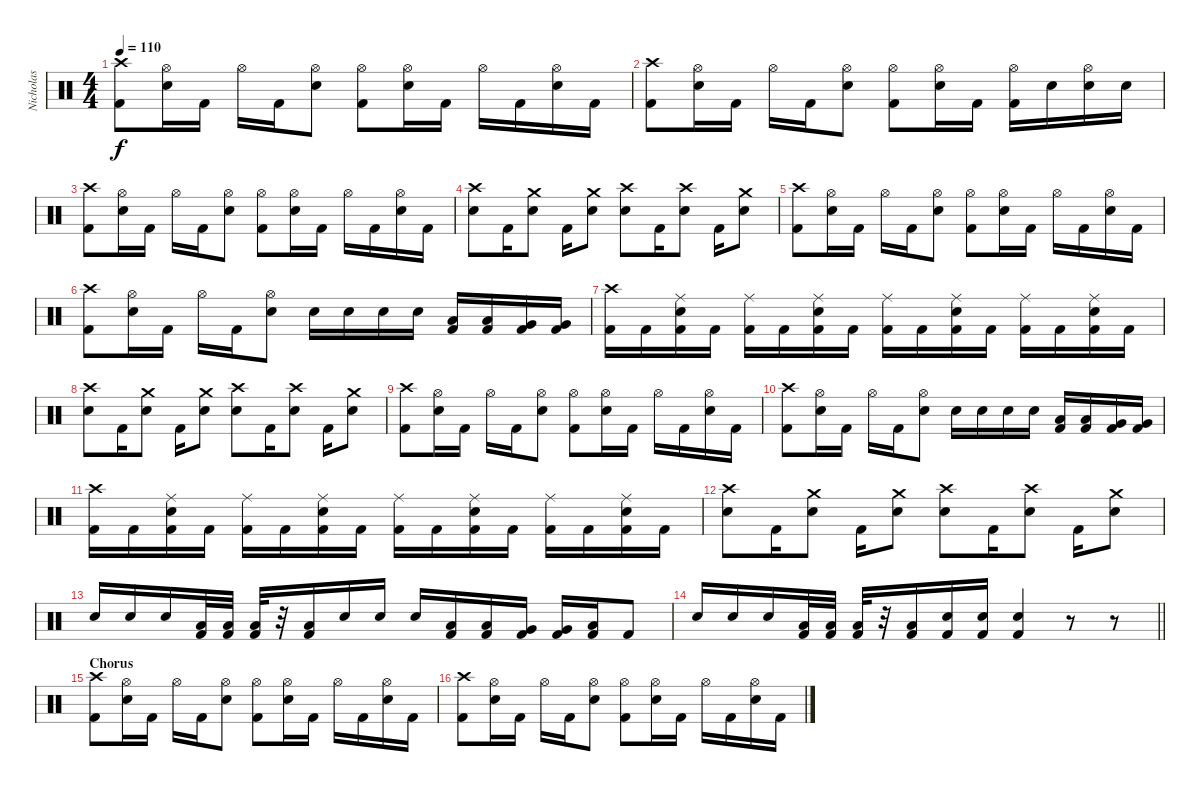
\track ("Nicholas" "Nicholas") {instrument percussion}
\staff {score}
\articulation defaults
\ts (4 4)
\tempo 110
\clef neutral
\ks c
("Crash high (hit)" "Kick (hit) 2").8{dy f} ("Hi-Hat (open)" "Snare (hit) 2").16 "Kick (hit) 2".16 "Hi-Hat (open)".16 "Kick (hit) 2".16 ("Hi-Hat (open)" "Snare (hit) 2").8 ("Hi-Hat (open)" "Kick (hit) 2").8 ("Hi-Hat (open)" "Snare (hit) 2").16 "Kick (hit) 2".16 "Hi-Hat (open)".16 "Kick (hit) 2".16 ("Hi-Hat (open)" "Snare (hit) 2").16 "Kick (hit) 2".16 |
("Crash high (hit)" "Kick (hit) 2").8 ("Hi-Hat (open)" "Snare (hit) 2").16 "Kick (hit) 2".16 "Hi-Hat (open)".16 "Kick (hit) 2".16 ("Hi-Hat (open)" "Snare (hit) 2").8 ("Hi-Hat (open)" "Kick (hit) 2").8 ("Hi-Hat (open)" "Snare (hit) 2").16 "Kick (hit) 2".16 ("Hi-Hat (open)" "Kick (hit) 2").16 "Snare (hit) 2".16 ("Hi-Hat (open)" "Snare (hit) 2").16 "Snare (hit) 2".16 |
("Crash high (hit)" "Kick (hit) 2").8 ("Hi-Hat (open)" "Snare (hit) 2").16 "Kick (hit) 2".16 "Hi-Hat (open)".16 "Kick (hit) 2".16 ("Hi-Hat (open)" "Snare (hit) 2").8 ("Hi-Hat (open)" "Kick (hit) 2").8 ("Hi-Hat (open)" "Snare (hit) 2").16 "Kick (hit) 2".16 "Hi-Hat (open)".16 "Kick (hit) 2".16 ("Hi-Hat (open)" "Snare (hit) 2").16 "Kick (hit) 2".16 |
("Crash high (hit)" "Snare (hit) 2").8 "Kick (hit) 2".16 ("Crash medium (hit)" "Snare (hit) 2").8 "Kick (hit) 2".16 ("Crash medium (hit)" "Snare (hit) 2").8 ("Crash high (hit)" "Snare (hit) 2").8 "Kick (hit) 2".16 ("Crash high (hit)" "Snare (hit) 2").8 "Kick (hit) 2".16 ("Crash medium (hit)" "Snare (hit) 2").8 |
("Crash high (hit)" "Kick (hit) 2").8 ("Hi-Hat (open)" "Snare (hit) 2").16 "Kick (hit) 2".16 "Hi-Hat (open)".16 "Kick (hit) 2".16 ("Hi-Hat (open)" "Snare (hit) 2").8 ("Hi-Hat (open)" "Kick (hit) 2").8 ("Hi-Hat (open)" "Snare (hit) 2").16 "Kick (hit) 2".16 "Hi-Hat (open)".16 "Kick (hit) 2".16 ("Hi-Hat (open)" "Snare (hit) 2").16 "Kick (hit) 2".16 |
("Crash high (hit)" "Kick (hit) 2").8 ("Hi-Hat (open)" "Snare (hit) 2").16 "Kick (hit) 2".16 "Hi-Hat (open)".16 "Kick (hit) 2".16 ("Hi-Hat (open)" "Snare (hit) 2").8 "Snare (hit) 2".16 "Snare (hit) 2".16 "Snare (hit) 2".16 "Snare (hit) 2".16 ("Kick (hit) 2" "Low Tom (hit)").16 ("Kick (hit) 2" "Low Tom (hit)").16 ("Kick (hit) 2" "Very Low Tom (hit)").16 ("Kick (hit) 2" "Very Low Tom (hit)").16 |
("Crash high (hit)" "Kick (hit) 2").16 "Kick (hit) 2".16 ("Ride (middle)" "Snare (hit) 2" "Kick (hit) 2").16 "Kick (hit) 2".16 ("Ride (middle)" "Kick (hit) 2").16 "Kick (hit) 2".16 ("Ride (middle)" "Snare (hit) 2" "Kick (hit) 2").16 "Kick (hit) 2".16 ("Ride (middle)" "Kick (hit) 2").16 "Kick (hit) 2".16 ("Ride (middle)" "Snare (hit) 2" "Kick (hit) 2").16 "Kick (hit) 2".16 ("Ride (middle)" "Kick (hit) 2").16 "Kick (hit) 2".16 ("Ride (middle)" "Snare (hit) 2" "Kick (hit) 2").16 "Kick (hit) 2".16 |
("Crash high (hit)" "Snare (hit) 2").8 "Kick (hit) 2".16 ("Crash medium (hit)" "Snare (hit) 2").8 "Kick (hit) 2".16 ("Crash medium (hit)" "Snare (hit) 2").8 ("Crash high (hit)" "Snare (hit) 2").8 "Kick (hit) 2".16 ("Crash high (hit)" "Snare (hit) 2").8 "Kick (hit) 2".16 ("Crash medium (hit)" "Snare (hit) 2").8 |
("Crash high (hit)" "Kick (hit) 2").8 ("Hi-Hat (open)" "Snare (hit) 2").16 "Kick (hit) 2".16 "Hi-Hat (open)".16 "Kick (hit) 2".16 ("Hi-Hat (open)" "Snare (hit) 2").8 ("Hi-Hat (open)" "Kick (hit) 2").8 ("Hi-Hat (open)" "Snare (hit) 2").16 "Kick (hit) 2".16 "Hi-Hat (open)".16 "Kick (hit) 2".16 ("Hi-Hat (open)" "Snare (hit) 2").16 "Kick (hit) 2".16 |
("Crash high (hit)" "Kick (hit) 2").8 ("Hi-Hat (open)" "Snare (hit) 2").16 "Kick (hit) 2".16 "Hi-Hat (open)".16 "Kick (hit) 2".16 ("Hi-Hat (open)" "Snare (hit) 2").8 "Snare (hit) 2".16 "Snare (hit) 2".16 "Snare (hit) 2".16 "Snare (hit) 2".16 ("Kick (hit) 2" "Low Tom (hit)").16 ("Kick (hit) 2" "Low Tom (hit)").16 ("Kick (hit) 2" "Very Low Tom (hit)").16 ("Kick (hit) 2" "Very Low Tom (hit)").16 |
("Crash high (hit)" "Kick (hit) 2").16 "Kick (hit) 2".16 ("Ride (middle)" "Snare (hit) 2" "Kick (hit) 2").16 "Kick (hit) 2".16 ("Ride (middle)" "Kick (hit) 2").16 "Kick (hit) 2".16 ("Ride (middle)" "Snare (hit) 2" "Kick (hit) 2").16 "Kick (hit) 2".16 ("Ride (middle)" "Kick (hit) 2").16 "Kick (hit) 2".16 ("Ride (middle)" "Snare (hit) 2" "Kick (hit) 2").16 "Kick (hit) 2".16 ("Ride (middle)" "Kick (hit) 2").16 "Kick (hit) 2".16 ("Ride (middle)" "Snare (hit) 2" "Kick (hit) 2").16 "Kick (hit) 2".16 |
("Crash high (hit)" "Snare (hit) 2").8 "Kick (hit) 2".16 ("Crash medium (hit)" "Snare (hit) 2").8 "Kick (hit) 2".16 ("Crash medium (hit)" "Snare (hit) 2").8 ("Crash high (hit)" "Snare (hit) 2").8 "Kick (hit) 2".16 ("Crash high (hit)" "Snare (hit) 2").8 "Kick (hit) 2".16 ("Crash medium (hit)" "Snare (hit) 2").8 |
"Snare (hit) 2".16 "Snare (hit) 2".16 "Snare (hit) 2".16 ("Kick (hit) 2" "Low Tom (hit)").32 ("Kick (hit) 2" "Low Tom (hit)").32 ("Kick (hit) 2" "Low Tom (hit)").32 r.32 ("Kick (hit) 2" "Low Tom (hit)").16 "Snare (hit) 2".16 "Snare (hit) 2".16 "Snare (hit) 2".16 ("Kick (hit) 2" "Low Tom (hit)").16 ("Kick (hit) 2" "Low Tom (hit)").16 ("Kick (hit) 2" "Very Low Tom (hit)").16 ("Kick (hit) 2" "Very Low Tom (hit)").16 ("Kick (hit) 2" "Low Floor Tom (hit)").16 "Kick (hit) 2".8 |
\barLineRight lightlight "Snare (hit) 2".16 "Snare (hit) 2".16 "Snare (hit) 2".16
("Kick (hit) 2" "Low Tom (hit)").32 ("Kick (hit) 2" "Low Tom (hit)").32 ("Kick (hit) 2" "Low Tom (hit)").32 r.32 ("Kick (hit) 2" "Low Tom (hit)").16 ("Kick (hit) 2" "Snare (hit) 2").16 ("Kick (hit) 2" "Snare (hit) 2").16 ("Kick (hit) 2" "Snare (hit) 2").4 r.8 r.8 |
\section ("" "Chorus")
("Crash high (hit)" "Kick (hit) 2").8 ("Hi-Hat (open)" "Snare (hit) 2").16 "Kick (hit) 2".16 "Hi-Hat (open)".16 "Kick (hit) 2".16 ("Hi-Hat (open)" "Snare (hit) 2").8 ("Hi-Hat (open)" "Kick (hit) 2").8 ("Hi-Hat (open)" "Snare (hit) 2").16 "Kick (hit) 2".16 "Hi-Hat (open)".16 "Kick (hit) 2".16 ("Hi-Hat (open)" "Snare (hit) 2").16 "Kick (hit) 2".16 |
("Crash high (hit)" "Kick (hit) 2").8 ("Hi-Hat (open)" "Snare (hit) 2").16 "Kick (hit) 2".16 "Hi-Hat (open)".16 "Kick (hit) 2".16 ("Hi-Hat (open)" "Snare (hit) 2").8 ("Hi-Hat (open)" "Kick (hit) 2").8 ("Hi-Hat (open)" "Snare (hit) 2").16 "Kick (hit) 2".16 "Hi-Hat (open)".16 "Kick (hit) 2".16 ("Hi-Hat (open)" "Snare (hit) 2").16 "Kick (hit) 2".16
